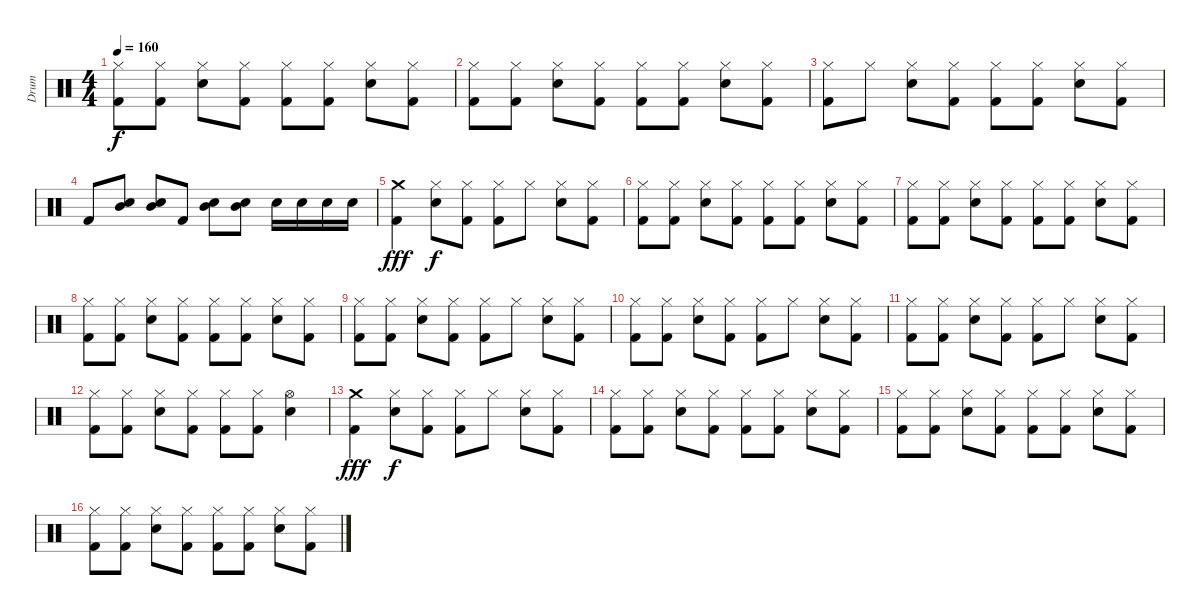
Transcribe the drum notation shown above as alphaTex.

\track ("Drum" "Drum") {instrument percussion}
\staff {score}
\articulation defaults
\ts (4 4)
\tempo 160
\clef neutral
\ks c
("Hi-Hat (closed)" "Kick (hit) 2").8{dy f} ("Hi-Hat (closed)" "Kick (hit) 2").8 ("Hi-Hat (closed)" "Snare (hit) 2").8 ("Hi-Hat (closed)" "Kick (hit) 2").8 ("Hi-Hat (closed)" "Kick (hit) 2").8 ("Hi-Hat (closed)" "Kick (hit) 2").8 ("Hi-Hat (closed)" "Snare (hit) 2").8 ("Hi-Hat (closed)" "Kick (hit) 2").8 |
("Hi-Hat (closed)" "Kick (hit) 2").8 ("Hi-Hat (closed)" "Kick (hit) 2").8 ("Hi-Hat (closed)" "Snare (hit) 2").8 ("Hi-Hat (closed)" "Kick (hit) 2").8 ("Hi-Hat (closed)" "Kick (hit) 2").8 ("Hi-Hat (closed)" "Kick (hit) 2").8 ("Hi-Hat (closed)" "Snare (hit) 2").8 ("Hi-Hat (closed)" "Kick (hit) 2").8 |
("Hi-Hat (closed)" "Kick (hit) 2").8 "Hi-Hat (closed)".8 ("Hi-Hat (closed)" "Snare (hit) 2").8 ("Hi-Hat (closed)" "Kick (hit) 2").8 ("Hi-Hat (closed)" "Kick (hit) 2").8 ("Hi-Hat (closed)" "Kick (hit) 2").8 ("Hi-Hat (closed)" "Snare (hit) 2").8 ("Hi-Hat (closed)" "Kick (hit) 2").8 |
"Kick (hit) 2".8 ("Snare (hit) 2" "Mid Tom (hit)").8 ("Snare (hit) 2" "Mid Tom (hit)").8 "Kick (hit) 2".8 ("Snare (hit) 2" "Mid Tom (hit)").8 ("Snare (hit) 2" "Mid Tom (hit)").8 "Snare (hit) 2".16 "Snare (hit) 2".16 "Snare (hit) 2".16 "Snare (hit) 2".16 |
("Crash medium (hit)" "Kick (hit) 2").4{dy fff} ("Hi-Hat (closed)" "Snare (hit) 2").8{dy f} ("Hi-Hat (closed)" "Kick (hit) 2").8 ("Hi-Hat (closed)" "Kick (hit) 2").8 "Hi-Hat (closed)".8 ("Hi-Hat (closed)" "Snare (hit) 2").8 ("Hi-Hat (closed)" "Kick (hit) 2").8 |
("Hi-Hat (closed)" "Kick (hit) 2").8 ("Hi-Hat (closed)" "Kick (hit) 2").8 ("Hi-Hat (closed)" "Snare (hit) 2").8 ("Hi-Hat (closed)" "Kick (hit) 2").8 ("Hi-Hat (closed)" "Kick (hit) 2").8 ("Hi-Hat (closed)" "Kick (hit) 2").8 ("Hi-Hat (closed)" "Snare (hit) 2").8 ("Hi-Hat (closed)" "Kick (hit) 2").8 |
("Hi-Hat (closed)" "Kick (hit) 2").8 ("Hi-Hat (closed)" "Kick (hit) 2").8 ("Hi-Hat (closed)" "Snare (hit) 2").8 ("Hi-Hat (closed)" "Kick (hit) 2").8 ("Hi-Hat (closed)" "Kick (hit) 2").8 ("Hi-Hat (closed)" "Kick (hit) 2").8 ("Hi-Hat (closed)" "Snare (hit) 2").8 ("Hi-Hat (closed)" "Kick (hit) 2").8 |
("Hi-Hat (closed)" "Kick (hit) 2").8 ("Hi-Hat (closed)" "Kick (hit) 2").8 ("Hi-Hat (closed)" "Snare (hit) 2").8 ("Hi-Hat (closed)" "Kick (hit) 2").8 ("Hi-Hat (closed)" "Kick (hit) 2").8 ("Hi-Hat (closed)" "Kick (hit) 2").8 ("Hi-Hat (closed)" "Snare (hit) 2").8 ("Hi-Hat (closed)" "Kick (hit) 2").8 |
("Hi-Hat (closed)" "Kick (hit) 2").8 ("Hi-Hat (closed)" "Kick (hit) 2").8 ("Hi-Hat (closed)" "Snare (hit) 2").8 ("Hi-Hat (closed)" "Kick (hit) 2").8 ("Hi-Hat (closed)" "Kick (hit) 2").8 "Hi-Hat (closed)".8 ("Hi-Hat (closed)" "Snare (hit) 2").8 ("Hi-Hat (closed)" "Kick (hit) 2").8 |
("Hi-Hat (closed)" "Kick (hit) 2").8 ("Hi-Hat (closed)" "Kick (hit) 2").8 ("Hi-Hat (closed)" "Snare (hit) 2").8 ("Hi-Hat (closed)" "Kick (hit) 2").8 ("Hi-Hat (closed)" "Kick (hit) 2").8 "Hi-Hat (closed)".8 ("Hi-Hat (closed)" "Snare (hit) 2").8 ("Hi-Hat (closed)" "Kick (hit) 2").8 |
("Hi-Hat (closed)" "Kick (hit) 2").8 ("Hi-Hat (closed)" "Kick (hit) 2").8 ("Hi-Hat (closed)" "Snare (hit) 2").8 ("Hi-Hat (closed)" "Kick (hit) 2").8 ("Hi-Hat (closed)" "Kick (hit) 2").8 "Hi-Hat (closed)".8 ("Hi-Hat (closed)" "Snare (hit) 2").8 ("Hi-Hat (closed)" "Kick (hit) 2").8 |
("Hi-Hat (closed)" "Kick (hit) 2").8 ("Hi-Hat (closed)" "Kick (hit) 2").8 ("Hi-Hat (closed)" "Snare (hit) 2").8 ("Hi-Hat (closed)" "Kick (hit) 2").8 ("Hi-Hat (closed)" "Kick (hit) 2").8 ("Hi-Hat (closed)" "Kick (hit) 2").8 ("Hi-Hat (open)" "Snare (hit) 2").4 |
("Crash medium (hit)" "Kick (hit) 2").4{dy fff} ("Hi-Hat (closed)" "Snare (hit) 2").8{dy f} ("Hi-Hat (closed)" "Kick (hit) 2").8 ("Hi-Hat (closed)" "Kick (hit) 2").8 "Hi-Hat (closed)".8 ("Hi-Hat (closed)" "Snare (hit) 2").8 ("Hi-Hat (closed)" "Kick (hit) 2").8 |
("Hi-Hat (closed)" "Kick (hit) 2").8 ("Hi-Hat (closed)" "Kick (hit) 2").8 ("Hi-Hat (closed)" "Snare (hit) 2").8 ("Hi-Hat (closed)" "Kick (hit) 2").8 ("Hi-Hat (closed)" "Kick (hit) 2").8 ("Hi-Hat (closed)" "Kick (hit) 2").8 ("Hi-Hat (closed)" "Snare (hit) 2").8 ("Hi-Hat (closed)" "Kick (hit) 2").8 |
("Hi-Hat (closed)" "Kick (hit) 2").8 ("Hi-Hat (closed)" "Kick (hit) 2").8 ("Hi-Hat (closed)" "Snare (hit) 2").8 ("Hi-Hat (closed)" "Kick (hit) 2").8 ("Hi-Hat (closed)" "Kick (hit) 2").8 ("Hi-Hat (closed)" "Kick (hit) 2").8 ("Hi-Hat (closed)" "Snare (hit) 2").8 ("Hi-Hat (closed)" "Kick (hit) 2").8 |
("Hi-Hat (closed)" "Kick (hit) 2").8 ("Hi-Hat (closed)" "Kick (hit) 2").8 ("Hi-Hat (closed)" "Snare (hit) 2").8 ("Hi-Hat (closed)" "Kick (hit) 2").8 ("Hi-Hat (closed)" "Kick (hit) 2").8 ("Hi-Hat (closed)" "Kick (hit) 2").8 ("Hi-Hat (closed)" "Snare (hit) 2").8 ("Hi-Hat (closed)" "Kick (hit) 2").8
